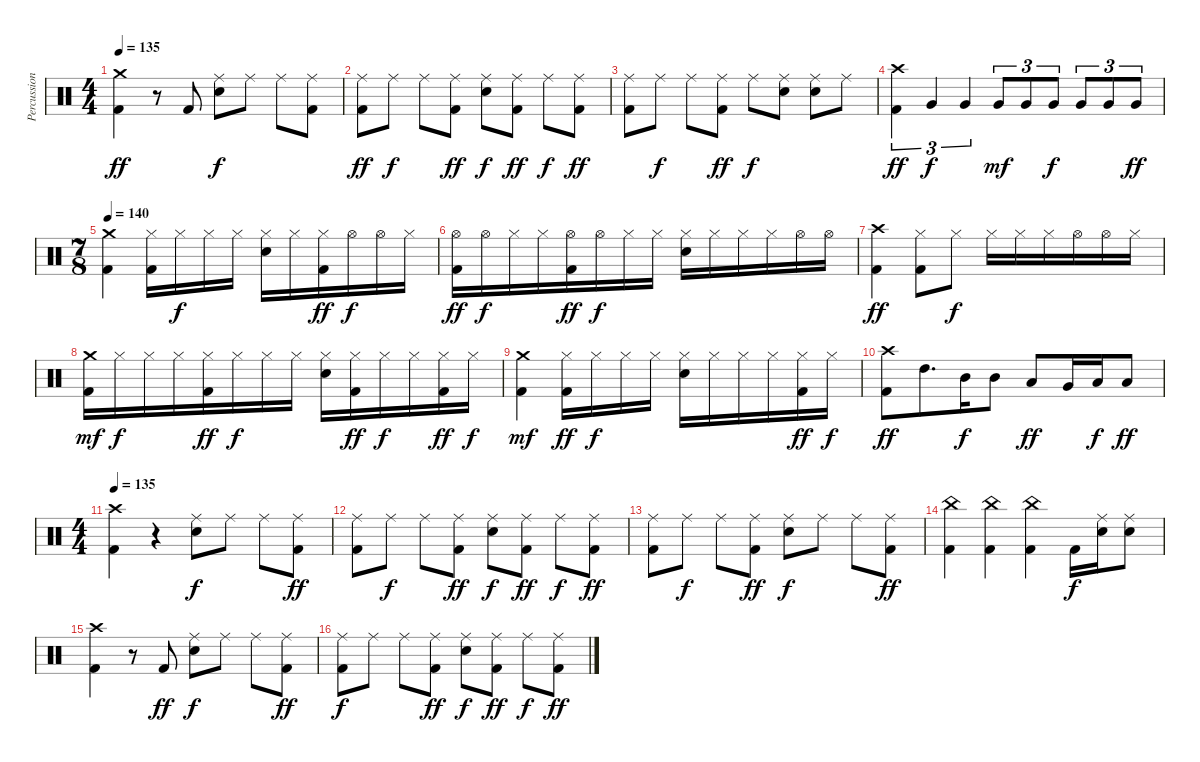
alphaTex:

\track ("Percussion" "Percussion") {instrument percussion}
\staff {score}
\articulation defaults
\ts (4 4)
\tempo 135
\clef neutral
\ks c
("Kick (hit) 2" "Crash medium (hit)").4{dy ff} r.8 "Kick (hit) 2".8 ("Snare (hit) 2" "Ride (middle)").8{dy f} "Ride (middle)".8 "Ride (middle)".8 ("Kick (hit) 2" "Ride (middle)").8 |
("Kick (hit) 2" "Ride (middle)").8{dy ff} "Ride (middle)".8{dy f} "Ride (middle)".8 ("Kick (hit) 2" "Ride (middle)").8{dy ff} ("Snare (hit) 2" "Ride (middle)").8{dy f} ("Kick (hit) 2" "Ride (middle)").8{dy ff} "Ride (middle)".8{dy f} ("Kick (hit) 2" "Ride (middle)").8{dy ff} |
("Kick (hit) 2" "Ride (middle)").8 "Ride (middle)".8{dy f} "Ride (middle)".8 ("Kick (hit) 2" "Ride (middle)").8{dy ff} "Ride (middle)".8{dy f} ("Snare (hit) 2" "Ride (middle)").8 ("Snare (hit) 2" "Ride (middle)").8 "Ride (middle)".8 |
("Kick (hit) 2" "Crash high (hit)").4{tu (3 2) dy ff} "Very Low Tom (hit)".4{tu (3 2) dy f} "Very Low Tom (hit)".4{tu (3 2)} "Very Low Tom (hit)".8{tu (3 2) dy mf} "Very Low Tom (hit)".8{tu (3 2)} "Very Low Tom (hit)".8{tu (3 2) dy f} "Very Low Tom (hit)".8{tu (3 2)} "Very Low Tom (hit)".8{tu (3 2)} "Very Low Tom (hit)".8{tu (3 2) dy ff} |
\ts (7 8)
\tempo 140
("Kick (hit) 2" "Crash medium (hit)").4 ("Kick (hit) 2" "Hi-Hat (closed)").16 "Hi-Hat (closed)".16{dy f} "Hi-Hat (closed)".16 "Hi-Hat (closed)".16 ("Snare (hit) 2" "Hi-Hat (closed)").16 "Hi-Hat (closed)".16 ("Kick (hit) 2" "Hi-Hat (closed)").16{dy ff} "Hi-Hat (open)".16{dy f} "Hi-Hat (open)".16 "Hi-Hat (closed)".16 |
("Kick (hit) 2" "Hi-Hat (open)").16{dy ff} "Hi-Hat (open)".16{dy f} "Hi-Hat (closed)".16 "Hi-Hat (closed)".16 ("Kick (hit) 2" "Hi-Hat (open)").16{dy ff} "Hi-Hat (open)".16{dy f} "Hi-Hat (closed)".16 "Hi-Hat (closed)".16 ("Snare (hit) 2" "Hi-Hat (closed)").16 "Hi-Hat (closed)".16 "Hi-Hat (closed)".16 "Hi-Hat (closed)".16 "Hi-Hat (open)".16 "Hi-Hat (open)".16 |
("Kick (hit) 2" "Crash high (hit)").4{dy ff} ("Kick (hit) 2" "Hi-Hat (closed)").8 "Hi-Hat (closed)".8{dy f} "Hi-Hat (closed)".16 "Hi-Hat (closed)".16 "Hi-Hat (closed)".16 "Hi-Hat (open)".16 "Hi-Hat (open)".16 "Hi-Hat (closed)".16 |
("Kick (hit) 2" "Crash medium (hit)").16{dy mf} "Hi-Hat (closed)".16{dy f} "Hi-Hat (closed)".16 "Hi-Hat (closed)".16 ("Kick (hit) 2" "Hi-Hat (closed)").16{dy ff} "Hi-Hat (closed)".16{dy f} "Hi-Hat (closed)".16 "Hi-Hat (closed)".16 ("Snare (hit) 2" "Hi-Hat (closed)").16 ("Kick (hit) 2" "Hi-Hat (closed)").16{dy ff} "Hi-Hat (closed)".16{dy f} "Hi-Hat (closed)".16 ("Kick (hit) 2" "Hi-Hat (closed)").16{dy ff} "Hi-Hat (closed)".16{dy f} |
("Kick (hit) 2" "Crash medium (hit)").4{dy mf} ("Kick (hit) 2" "Hi-Hat (closed)").16{dy ff} "Hi-Hat (closed)".16{dy f} "Hi-Hat (closed)".16 "Hi-Hat (closed)".16 ("Snare (hit) 2" "Hi-Hat (closed)").16 "Hi-Hat (closed)".16 "Hi-Hat (closed)".16 "Hi-Hat (closed)".16 ("Kick (hit) 2" "Hi-Hat (closed)").16{dy ff} "Hi-Hat (closed)".16{dy f} |
("Kick (hit) 2" "Crash high (hit)").8{dy ff} "High Tom (hit)".8{d} "Mid Tom (hit)".16{dy f} "Mid Tom (hit)".8 "Low Tom (hit)".8{dy ff} "Very Low Tom (hit)".16 "Low Floor Tom (hit)".16{dy f} "Low Floor Tom (hit)".8{dy ff} |
\ts (4 4)
\tempo 135
("Kick (hit) 2" "Crash high (hit)").4 r.4 ("Snare (hit) 2" "Ride (middle)").8{dy f} "Ride (middle)".8 "Ride (middle)".8 ("Kick (hit) 2" "Ride (middle)").8{dy ff} |
("Kick (hit) 2" "Ride (middle)").8 "Ride (middle)".8{dy f} "Ride (middle)".8 ("Kick (hit) 2" "Ride (middle)").8{dy ff} ("Snare (hit) 2" "Ride (middle)").8{dy f} ("Kick (hit) 2" "Ride (middle)").8{dy ff} "Ride (middle)".8{dy f} ("Kick (hit) 2" "Ride (middle)").8{dy ff} |
("Kick (hit) 2" "Ride (middle)").8 "Ride (middle)".8{dy f} "Ride (middle)".8 ("Kick (hit) 2" "Ride (middle)").8{dy ff} ("Snare (hit) 2" "Ride (middle)").8{dy f} "Ride (middle)".8 "Ride (middle)".8 ("Kick (hit) 2" "Ride (middle)").8{dy ff} |
("Kick (hit) 2" "China (hit)").4 ("Kick (hit) 2" "China (hit)").4 ("Kick (hit) 2" "China (hit)").4 "Kick (hit) 2".16{dy f} ("Snare (hit) 2" "Ride (middle)").16 ("Snare (hit) 2" "Ride (middle)").8 |
("Kick (hit) 2" "Crash high (hit)").4 r.8 "Kick (hit) 2".8{dy ff} ("Snare (hit) 2" "Ride (middle)").8{dy f} "Ride (middle)".8 "Ride (middle)".8 ("Kick (hit) 2" "Ride (middle)").8{dy ff} |
("Kick (hit) 2" "Ride (middle)").8{dy f} "Ride (middle)".8 "Ride (middle)".8 ("Kick (hit) 2" "Ride (middle)").8{dy ff} ("Snare (hit) 2" "Ride (middle)").8{dy f} ("Kick (hit) 2" "Ride (middle)").8{dy ff} "Ride (middle)".8{dy f} ("Kick (hit) 2" "Ride (middle)").8{dy ff}
